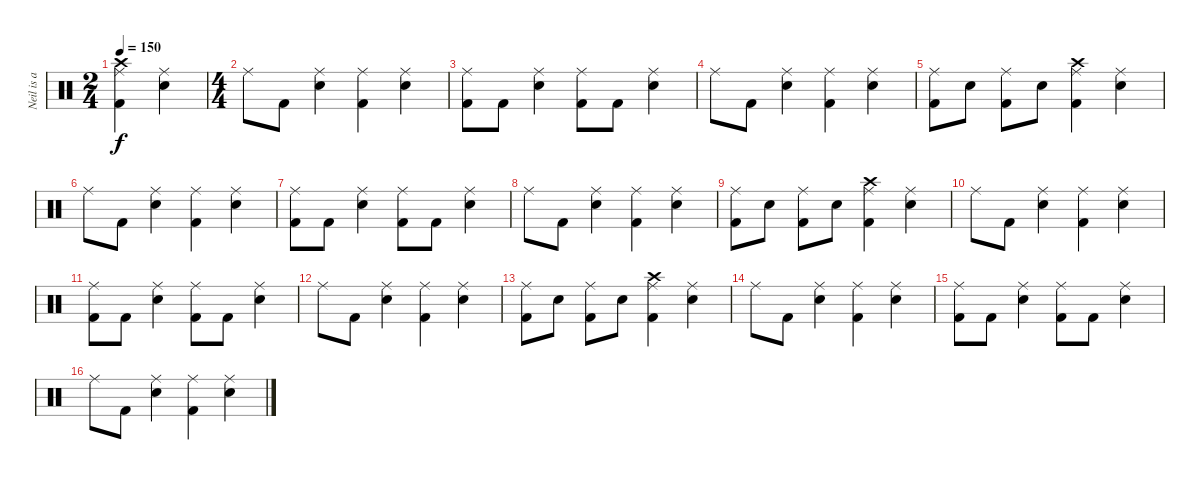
\track ("Neil is a Drum God!!!" "Neil is a ") {instrument percussion}
\staff {score}
\articulation defaults
\ts (2 4)
\tempo 150
\clef neutral
\ks c
("Crash high (hit)" "Ride (middle)" "Kick (hit) 2").4{dy f} ("Ride (middle)" "Snare (hit) 2").4 |
\ts (4 4)
"Ride (middle)".8 "Kick (hit) 2".8 ("Ride (middle)" "Snare (hit) 2").4 ("Ride (middle)" "Kick (hit) 2").4 ("Ride (middle)" "Snare (hit) 2").4 |
("Ride (middle)" "Kick (hit) 2").8 "Kick (hit) 2".8 ("Ride (middle)" "Snare (hit) 2").4 ("Ride (middle)" "Kick (hit) 2").8 "Kick (hit) 2".8 ("Ride (middle)" "Snare (hit) 2").4 |
"Ride (middle)".8 "Kick (hit) 2".8 ("Ride (middle)" "Snare (hit) 2").4 ("Ride (middle)" "Kick (hit) 2").4 ("Ride (middle)" "Snare (hit) 2").4 |
("Ride (middle)" "Kick (hit) 2").8 "Snare (hit) 2".8 ("Ride (middle)" "Kick (hit) 2").8 "Snare (hit) 2".8 ("Crash high (hit)" "Ride (middle)" "Kick (hit) 2").4 ("Ride (middle)" "Snare (hit) 2").4 |
"Ride (middle)".8 "Kick (hit) 2".8 ("Ride (middle)" "Snare (hit) 2").4 ("Ride (middle)" "Kick (hit) 2").4 ("Ride (middle)" "Snare (hit) 2").4 |
("Ride (middle)" "Kick (hit) 2").8 "Kick (hit) 2".8 ("Ride (middle)" "Snare (hit) 2").4 ("Ride (middle)" "Kick (hit) 2").8 "Kick (hit) 2".8 ("Ride (middle)" "Snare (hit) 2").4 |
"Ride (middle)".8 "Kick (hit) 2".8 ("Ride (middle)" "Snare (hit) 2").4 ("Ride (middle)" "Kick (hit) 2").4 ("Ride (middle)" "Snare (hit) 2").4 |
("Ride (middle)" "Kick (hit) 2").8 "Snare (hit) 2".8 ("Ride (middle)" "Kick (hit) 2").8 "Snare (hit) 2".8 ("Crash high (hit)" "Ride (middle)" "Kick (hit) 2").4 ("Ride (middle)" "Snare (hit) 2").4 |
"Ride (middle)".8 "Kick (hit) 2".8 ("Ride (middle)" "Snare (hit) 2").4 ("Ride (middle)" "Kick (hit) 2").4 ("Ride (middle)" "Snare (hit) 2").4 |
("Ride (middle)" "Kick (hit) 2").8 "Kick (hit) 2".8 ("Ride (middle)" "Snare (hit) 2").4 ("Ride (middle)" "Kick (hit) 2").8 "Kick (hit) 2".8 ("Ride (middle)" "Snare (hit) 2").4 |
"Ride (middle)".8 "Kick (hit) 2".8 ("Ride (middle)" "Snare (hit) 2").4 ("Ride (middle)" "Kick (hit) 2").4 ("Ride (middle)" "Snare (hit) 2").4 |
("Ride (middle)" "Kick (hit) 2").8 "Snare (hit) 2".8 ("Ride (middle)" "Kick (hit) 2").8 "Snare (hit) 2".8 ("Crash high (hit)" "Ride (middle)" "Kick (hit) 2").4 ("Ride (middle)" "Snare (hit) 2").4 |
"Ride (middle)".8 "Kick (hit) 2".8 ("Ride (middle)" "Snare (hit) 2").4 ("Ride (middle)" "Kick (hit) 2").4 ("Ride (middle)" "Snare (hit) 2").4 |
("Ride (middle)" "Kick (hit) 2").8 "Kick (hit) 2".8 ("Ride (middle)" "Snare (hit) 2").4 ("Ride (middle)" "Kick (hit) 2").8 "Kick (hit) 2".8 ("Ride (middle)" "Snare (hit) 2").4 |
"Ride (middle)".8 "Kick (hit) 2".8 ("Ride (middle)" "Snare (hit) 2").4 ("Ride (middle)" "Kick (hit) 2").4 ("Ride (middle)" "Snare (hit) 2").4
